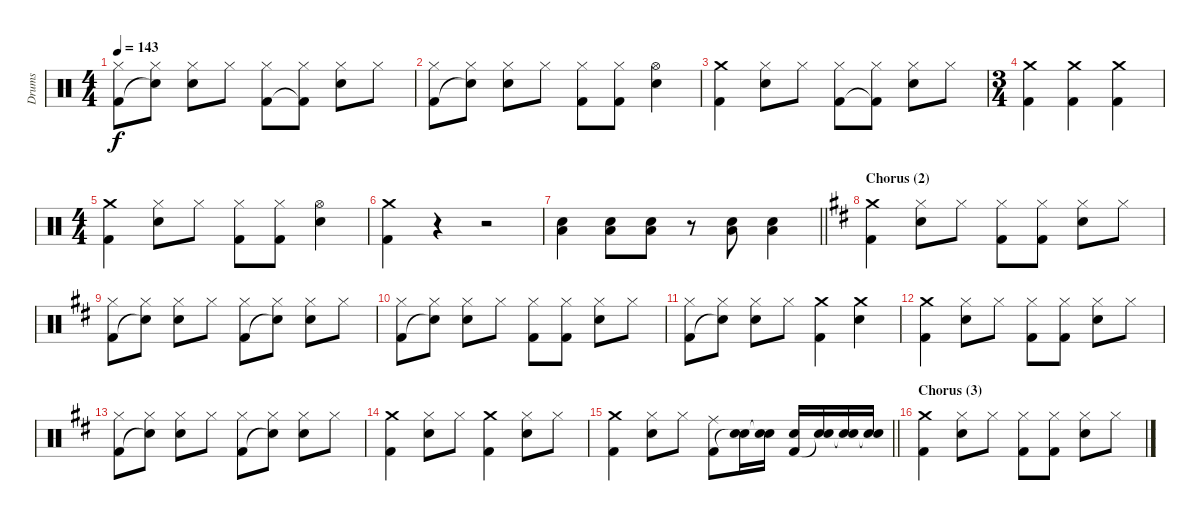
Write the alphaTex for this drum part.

\track ("Drums" "Drums") {instrument percussion}
\staff {score}
\articulation defaults
\ts (4 4)
\tempo 143
\clef neutral
\ks aminor
("Hi-Hat (closed)" "Kick (hit) 2").8{dy f} ("Hi-Hat (closed)" "Snare (hit)"{t}).8 ("Hi-Hat (closed)" "Electric Snare (hit)").8 "Hi-Hat (closed)".8 ("Hi-Hat (closed)" "Kick (hit) 2").8 ("Hi-Hat (closed)" "Kick (hit) 2"{t}).8 ("Hi-Hat (closed)" "Electric Snare (hit)").8 "Hi-Hat (closed)".8 |
("Hi-Hat (closed)" "Kick (hit) 2").8 ("Hi-Hat (closed)" "Snare (hit)"{t}).8 ("Hi-Hat (closed)" "Electric Snare (hit)").8 "Hi-Hat (closed)".8 ("Hi-Hat (closed)" "Kick (hit) 2").8 ("Hi-Hat (closed)" "Kick (hit) 2").8 ("Hi-Hat (open)" "Electric Snare (hit)").4 |
("Crash medium (hit)" "Kick (hit) 2").4 ("Hi-Hat (closed)" "Electric Snare (hit)").8 "Hi-Hat (closed)".8 ("Hi-Hat (closed)" "Kick (hit) 2").8 ("Hi-Hat (closed)" "Kick (hit) 2"{t}).8 ("Hi-Hat (closed)" "Electric Snare (hit)").8 "Hi-Hat (closed)".8 |
\ts (3 4)
("Crash medium (hit)" "Kick (hit) 2").4 ("Crash medium (hit)" "Kick (hit) 2").4 ("Crash medium (hit)" "Kick (hit) 2").4 |
\ts (4 4)
("Crash medium (hit)" "Kick (hit) 2").4 ("Hi-Hat (closed)" "Electric Snare (hit)").8 "Hi-Hat (closed)".8 ("Hi-Hat (closed)" "Kick (hit) 2").8 ("Hi-Hat (closed)" "Kick (hit) 2").8 ("Hi-Hat (open)" "Electric Snare (hit)").4 |
("Crash medium (hit)" "Kick (hit) 2").4 r.4 r.2 |
\barLineRight lightlight
("Electric Snare (hit)" "Low Floor Tom (hit)").4 ("Electric Snare (hit)" "Low Floor Tom (hit)").8 ("Electric Snare (hit)" "Low Floor Tom (hit)").8 r.8 ("Electric Snare (hit)" "Low Floor Tom (hit)").8 ("Electric Snare (hit)" "Low Floor Tom (hit)").4 |
\section ("" "Chorus (2)")
\ks d
("Crash medium (hit)" "Kick (hit) 2").4 ("Hi-Hat (closed)" "Electric Snare (hit)").8 "Hi-Hat (closed)".8 ("Hi-Hat (closed)" "Kick (hit) 2").8 ("Hi-Hat (closed)" "Kick (hit) 2").8 ("Hi-Hat (closed)" "Electric Snare (hit)").8 "Hi-Hat (closed)".8 |
("Hi-Hat (closed)" "Kick (hit) 2").8 ("Hi-Hat (closed)" "Snare (hit)"{t}).8 ("Hi-Hat (closed)" "Electric Snare (hit)").8 "Hi-Hat (closed)".8 ("Hi-Hat (closed)" "Kick (hit) 2").8 ("Hi-Hat (closed)" "Snare (hit)"{t}).8 ("Hi-Hat (closed)" "Electric Snare (hit)").8 "Hi-Hat (closed)".8 |
("Hi-Hat (closed)" "Kick (hit) 2").8 ("Hi-Hat (closed)" "Snare (hit)"{t}).8 ("Hi-Hat (closed)" "Electric Snare (hit)").8 "Hi-Hat (closed)".8 ("Hi-Hat (closed)" "Kick (hit) 2").8 ("Hi-Hat (closed)" "Kick (hit) 2").8 ("Hi-Hat (closed)" "Electric Snare (hit)").8 "Hi-Hat (closed)".8 |
("Hi-Hat (closed)" "Kick (hit) 2").8 ("Hi-Hat (closed)" "Snare (hit)"{t}).8 ("Hi-Hat (closed)" "Electric Snare (hit)").8 "Hi-Hat (closed)".8 ("Crash medium (hit)" "Kick (hit) 2").4 ("Crash medium (hit)" "Electric Snare (hit)").4 |
("Crash medium (hit)" "Kick (hit) 2").4 ("Hi-Hat (closed)" "Electric Snare (hit)").8 "Hi-Hat (closed)".8 ("Hi-Hat (closed)" "Kick (hit) 2").8 ("Hi-Hat (closed)" "Kick (hit) 2").8 ("Hi-Hat (closed)" "Electric Snare (hit)").8 "Hi-Hat (closed)".8 |
("Hi-Hat (closed)" "Kick (hit) 2").8 ("Hi-Hat (closed)" "Snare (hit)"{t}).8 ("Hi-Hat (closed)" "Electric Snare (hit)").8 "Hi-Hat (closed)".8 ("Hi-Hat (closed)" "Kick (hit) 2").8 ("Hi-Hat (closed)" "Snare (hit)"{t}).8 ("Hi-Hat (closed)" "Electric Snare (hit)").8 "Hi-Hat (closed)".8 |
("Crash medium (hit)" "Kick (hit) 2").4 ("Hi-Hat (closed)" "Electric Snare (hit)").8 "Hi-Hat (closed)".8 ("Crash medium (hit)" "Kick (hit) 2").4 ("Hi-Hat (closed)" "Electric Snare (hit)").8 "Hi-Hat (closed)".8 |
\barLineRight lightlight
("Crash medium (hit)" "Kick (hit) 2").4 ("Hi-Hat (closed)" "Electric Snare (hit)").8 "Hi-Hat (closed)".8 ("Ride (middle)" "Kick (hit) 2").8 ("Electric Snare (hit)" "Snare (hit)"{t}).16 ("Electric Snare (hit)" "Snare (hit)"{t}).16 ("Electric Snare (hit)" "Kick (hit) 2").16 ("Electric Snare (hit)" "Snare (hit)"{t}).16 ("Electric Snare (hit)" "Snare (hit)"{t}).16 ("Electric Snare (hit)" "Snare (hit)"{t}).16 |
\section ("" "Chorus (3)")
("Crash medium (hit)" "Kick (hit) 2").4 ("Hi-Hat (closed)" "Electric Snare (hit)").8 "Hi-Hat (closed)".8 ("Hi-Hat (closed)" "Kick (hit) 2").8 ("Hi-Hat (closed)" "Kick (hit) 2").8 ("Hi-Hat (closed)" "Electric Snare (hit)").8 "Hi-Hat (closed)".8
